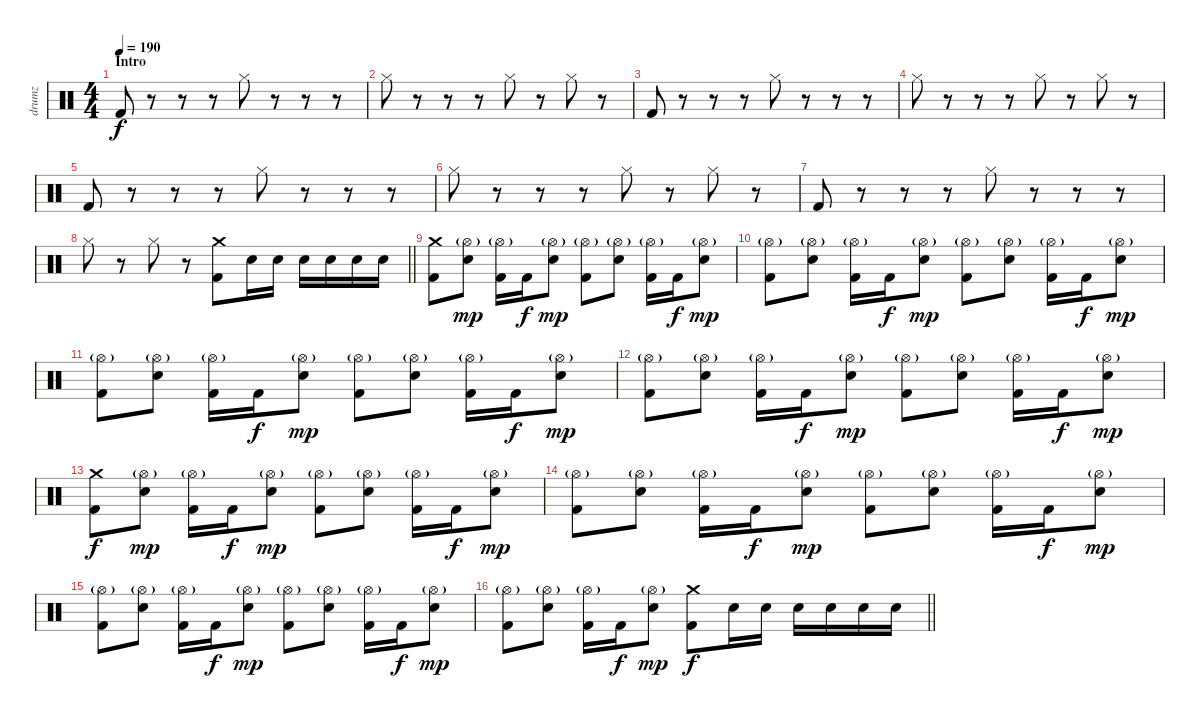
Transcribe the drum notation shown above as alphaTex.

\track ("drumz" "drumz") {instrument percussion}
\staff {score}
\articulation defaults
\ts (4 4)
\section ("" "Intro")
\tempo 190
\clef neutral
\ks c "Kick (hit) 2".8{dy f}
r.8 r.8 r.8 "Hi-Hat (closed)".8 r.8 r.8 r.8 |
"Hi-Hat (closed)".8 r.8 r.8 r.8 "Hi-Hat (closed)".8 r.8 "Hi-Hat (closed)".8 r.8 |
"Kick (hit) 2".8 r.8 r.8 r.8 "Hi-Hat (closed)".8 r.8 r.8 r.8 |
"Hi-Hat (closed)".8 r.8 r.8 r.8 "Hi-Hat (closed)".8 r.8 "Hi-Hat (closed)".8 r.8 |
"Kick (hit) 2".8 r.8 r.8 r.8 "Hi-Hat (closed)".8 r.8 r.8 r.8 |
"Hi-Hat (closed)".8 r.8 r.8 r.8 "Hi-Hat (closed)".8 r.8 "Hi-Hat (closed)".8 r.8 |
"Kick (hit) 2".8 r.8 r.8 r.8 "Hi-Hat (closed)".8 r.8 r.8 r.8 |
\barLineRight lightlight "Hi-Hat (closed)".8
r.8 "Hi-Hat (closed)".8 r.8 ("Crash medium (hit)" "Kick (hit) 2").8 "Electric Snare (hit)".16 "Electric Snare (hit)".16 "Electric Snare (hit)".16 "Electric Snare (hit)".16 "Electric Snare (hit)".16 "Electric Snare (hit)".16 |
\section ("" "")
("Crash medium (hit)" "Kick (hit) 2").8 ("Hi-Hat (open)"{g} "Electric Snare (hit)").8{dy mp} ("Hi-Hat (open)"{g} "Kick (hit) 2").16 "Kick (hit) 2".16{dy f} ("Hi-Hat (open)"{g} "Electric Snare (hit)").8{dy mp} ("Hi-Hat (open)"{g} "Kick (hit) 2").8 ("Hi-Hat (open)"{g} "Electric Snare (hit)").8 ("Hi-Hat (open)"{g} "Kick (hit) 2").16 "Kick (hit) 2".16{dy f} ("Hi-Hat (open)"{g} "Electric Snare (hit)").8{dy mp} |
("Hi-Hat (open)"{g} "Kick (hit) 2").8 ("Hi-Hat (open)"{g} "Electric Snare (hit)").8 ("Hi-Hat (open)"{g} "Kick (hit) 2").16 "Kick (hit) 2".16{dy f} ("Hi-Hat (open)"{g} "Electric Snare (hit)").8{dy mp} ("Hi-Hat (open)"{g} "Kick (hit) 2").8 ("Hi-Hat (open)"{g} "Electric Snare (hit)").8 ("Hi-Hat (open)"{g} "Kick (hit) 2").16 "Kick (hit) 2".16{dy f} ("Hi-Hat (open)"{g} "Electric Snare (hit)").8{dy mp} |
("Hi-Hat (open)"{g} "Kick (hit) 2").8 ("Hi-Hat (open)"{g} "Electric Snare (hit)").8 ("Hi-Hat (open)"{g} "Kick (hit) 2").16 "Kick (hit) 2".16{dy f} ("Hi-Hat (open)"{g} "Electric Snare (hit)").8{dy mp} ("Hi-Hat (open)"{g} "Kick (hit) 2").8 ("Hi-Hat (open)"{g} "Electric Snare (hit)").8 ("Hi-Hat (open)"{g} "Kick (hit) 2").16 "Kick (hit) 2".16{dy f} ("Hi-Hat (open)"{g} "Electric Snare (hit)").8{dy mp} |
("Hi-Hat (open)"{g} "Kick (hit) 2").8 ("Hi-Hat (open)"{g} "Electric Snare (hit)").8 ("Hi-Hat (open)"{g} "Kick (hit) 2").16 "Kick (hit) 2".16{dy f} ("Hi-Hat (open)"{g} "Electric Snare (hit)").8{dy mp} ("Hi-Hat (open)"{g} "Kick (hit) 2").8 ("Hi-Hat (open)"{g} "Electric Snare (hit)").8 ("Hi-Hat (open)"{g} "Kick (hit) 2").16 "Kick (hit) 2".16{dy f} ("Hi-Hat (open)"{g} "Electric Snare (hit)").8{dy mp} |
("Crash medium (hit)" "Kick (hit) 2").8{dy f} ("Hi-Hat (open)"{g} "Electric Snare (hit)").8{dy mp} ("Hi-Hat (open)"{g} "Kick (hit) 2").16 "Kick (hit) 2".16{dy f} ("Hi-Hat (open)"{g} "Electric Snare (hit)").8{dy mp} ("Hi-Hat (open)"{g} "Kick (hit) 2").8 ("Hi-Hat (open)"{g} "Electric Snare (hit)").8 ("Hi-Hat (open)"{g} "Kick (hit) 2").16 "Kick (hit) 2".16{dy f} ("Hi-Hat (open)"{g} "Electric Snare (hit)").8{dy mp} |
("Hi-Hat (open)"{g} "Kick (hit) 2").8 ("Hi-Hat (open)"{g} "Electric Snare (hit)").8 ("Hi-Hat (open)"{g} "Kick (hit) 2").16 "Kick (hit) 2".16{dy f} ("Hi-Hat (open)"{g} "Electric Snare (hit)").8{dy mp} ("Hi-Hat (open)"{g} "Kick (hit) 2").8 ("Hi-Hat (open)"{g} "Electric Snare (hit)").8 ("Hi-Hat (open)"{g} "Kick (hit) 2").16 "Kick (hit) 2".16{dy f} ("Hi-Hat (open)"{g} "Electric Snare (hit)").8{dy mp} |
("Hi-Hat (open)"{g} "Kick (hit) 2").8 ("Hi-Hat (open)"{g} "Electric Snare (hit)").8 ("Hi-Hat (open)"{g} "Kick (hit) 2").16 "Kick (hit) 2".16{dy f} ("Hi-Hat (open)"{g} "Electric Snare (hit)").8{dy mp} ("Hi-Hat (open)"{g} "Kick (hit) 2").8 ("Hi-Hat (open)"{g} "Electric Snare (hit)").8 ("Hi-Hat (open)"{g} "Kick (hit) 2").16 "Kick (hit) 2".16{dy f} ("Hi-Hat (open)"{g} "Electric Snare (hit)").8{dy mp} |
\barLineRight lightlight
("Hi-Hat (open)"{g} "Kick (hit) 2").8 ("Hi-Hat (open)"{g} "Electric Snare (hit)").8 ("Hi-Hat (open)"{g} "Kick (hit) 2").16 "Kick (hit) 2".16{dy f} ("Hi-Hat (open)"{g} "Electric Snare (hit)").8{dy mp} ("Crash medium (hit)" "Kick (hit) 2").8{dy f} "Electric Snare (hit)".16 "Electric Snare (hit)".16 "Electric Snare (hit)".16 "Electric Snare (hit)".16 "Electric Snare (hit)".16 "Electric Snare (hit)".16
